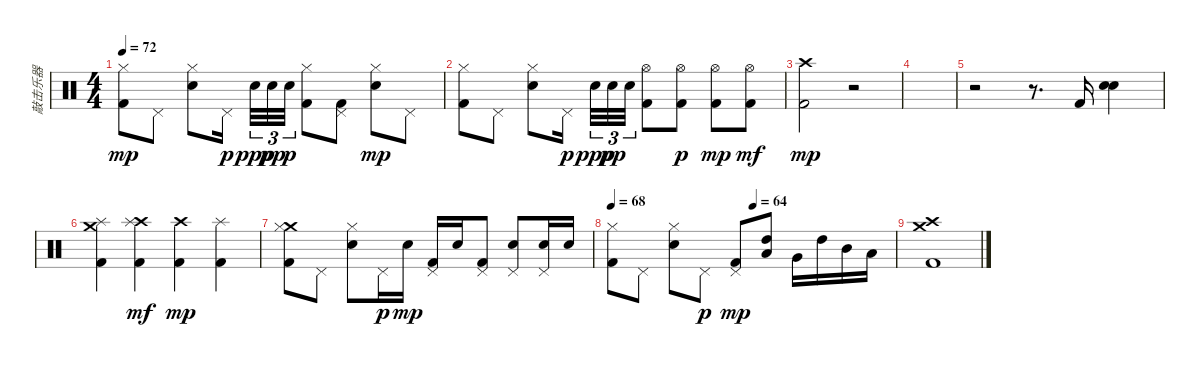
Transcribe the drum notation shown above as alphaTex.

\track ("敲击乐器" "敲击乐器") {instrument percussion}
\staff {score}
\articulation defaults
\ts (4 4)
\tempo 72
\clef neutral
\ks c
("Hi-Hat (closed)" "Kick (hit) 2").8{dy mp} "Pedal Hi-Hat (hit)".8 ("Hi-Hat (closed)" "Electric Snare (hit)").8 "Pedal Hi-Hat (hit)".16{dy p beam splitsecondary} "Electric Snare (hit)".32{tu (3 2) dy ppp} "Electric Snare (hit)".32{tu (3 2) dy pp} "Electric Snare (hit)".32{tu (3 2) dy p} ("Hi-Hat (closed)" "Kick (hit) 2").8 ("Pedal Hi-Hat (hit)" "Kick (hit) 2").8 ("Hi-Hat (closed)" "Electric Snare (hit)").8{dy mp} "Pedal Hi-Hat (hit)".8 |
("Hi-Hat (closed)" "Kick (hit) 2").8 "Pedal Hi-Hat (hit)".8 ("Hi-Hat (closed)" "Electric Snare (hit)").8 "Pedal Hi-Hat (hit)".16{dy p beam splitsecondary} "Electric Snare (hit)".32{tu (3 2) dy ppp} "Electric Snare (hit)".32{tu (3 2) dy pp} "Electric Snare (hit)".32{tu (3 2)} ("Hi-Hat (open)" "Kick (hit) 2").8 ("Hi-Hat (open)" "Kick (hit) 2").8{dy p} ("Hi-Hat (open)" "Kick (hit) 2").8{dy mp} ("Hi-Hat (open)" "Kick (hit) 2").8{dy mf} |
("Crash high (hit)" "Kick (hit) 2").2{dy mp} r.2 |
|
r.2 r.8{d} "Kick (hit) 2".16 ("Electric Snare (hit)" "Snare (hit) 2").4 |
("Crash medium (hit)" "Splash (hit)" "Kick (hit) 2").4 ("Crash high (hit)" "Splash (hit)" "Kick (hit) 2").4{dy mf} ("Crash high (hit)" "Kick (hit) 2").4{dy mp} ("Splash (hit)" "Kick (hit) 2").4 |
("Crash medium (hit)" "Hi-Hat (closed)" "Kick (hit) 2").8 "Pedal Hi-Hat (hit)".8 ("Hi-Hat (closed)" "Electric Snare (hit)").8 "Pedal Hi-Hat (hit)".16{dy p} "Electric Snare (hit)".16{dy mp} ("Pedal Hi-Hat (hit)" "Kick (hit) 2").16 "Electric Snare (hit)".16 ("Pedal Hi-Hat (hit)" "Kick (hit) 2").8 ("Pedal Hi-Hat (hit)" "Electric Snare (hit)").8 ("Pedal Hi-Hat (hit)" "Electric Snare (hit)").16 "Electric Snare (hit)".16 |
\tempo 68
\tempo (64 0.5)
("Hi-Hat (closed)" "Kick (hit) 2").8 "Pedal Hi-Hat (hit)".8 ("Hi-Hat (closed)" "Electric Snare (hit)").8 "Pedal Hi-Hat (hit)".8{dy p} ("Pedal Hi-Hat (hit)" "Kick (hit) 2").8{dy mp} ("High Tom (hit)" "Low Tom (hit)").8 "Very Low Tom (hit)".16 "High Tom (hit)".16 "Mid Tom (hit)".16 "Low Tom (hit)".16 |
("Crash medium (hit)" "Crash high (hit)" "Kick (hit) 2").1
